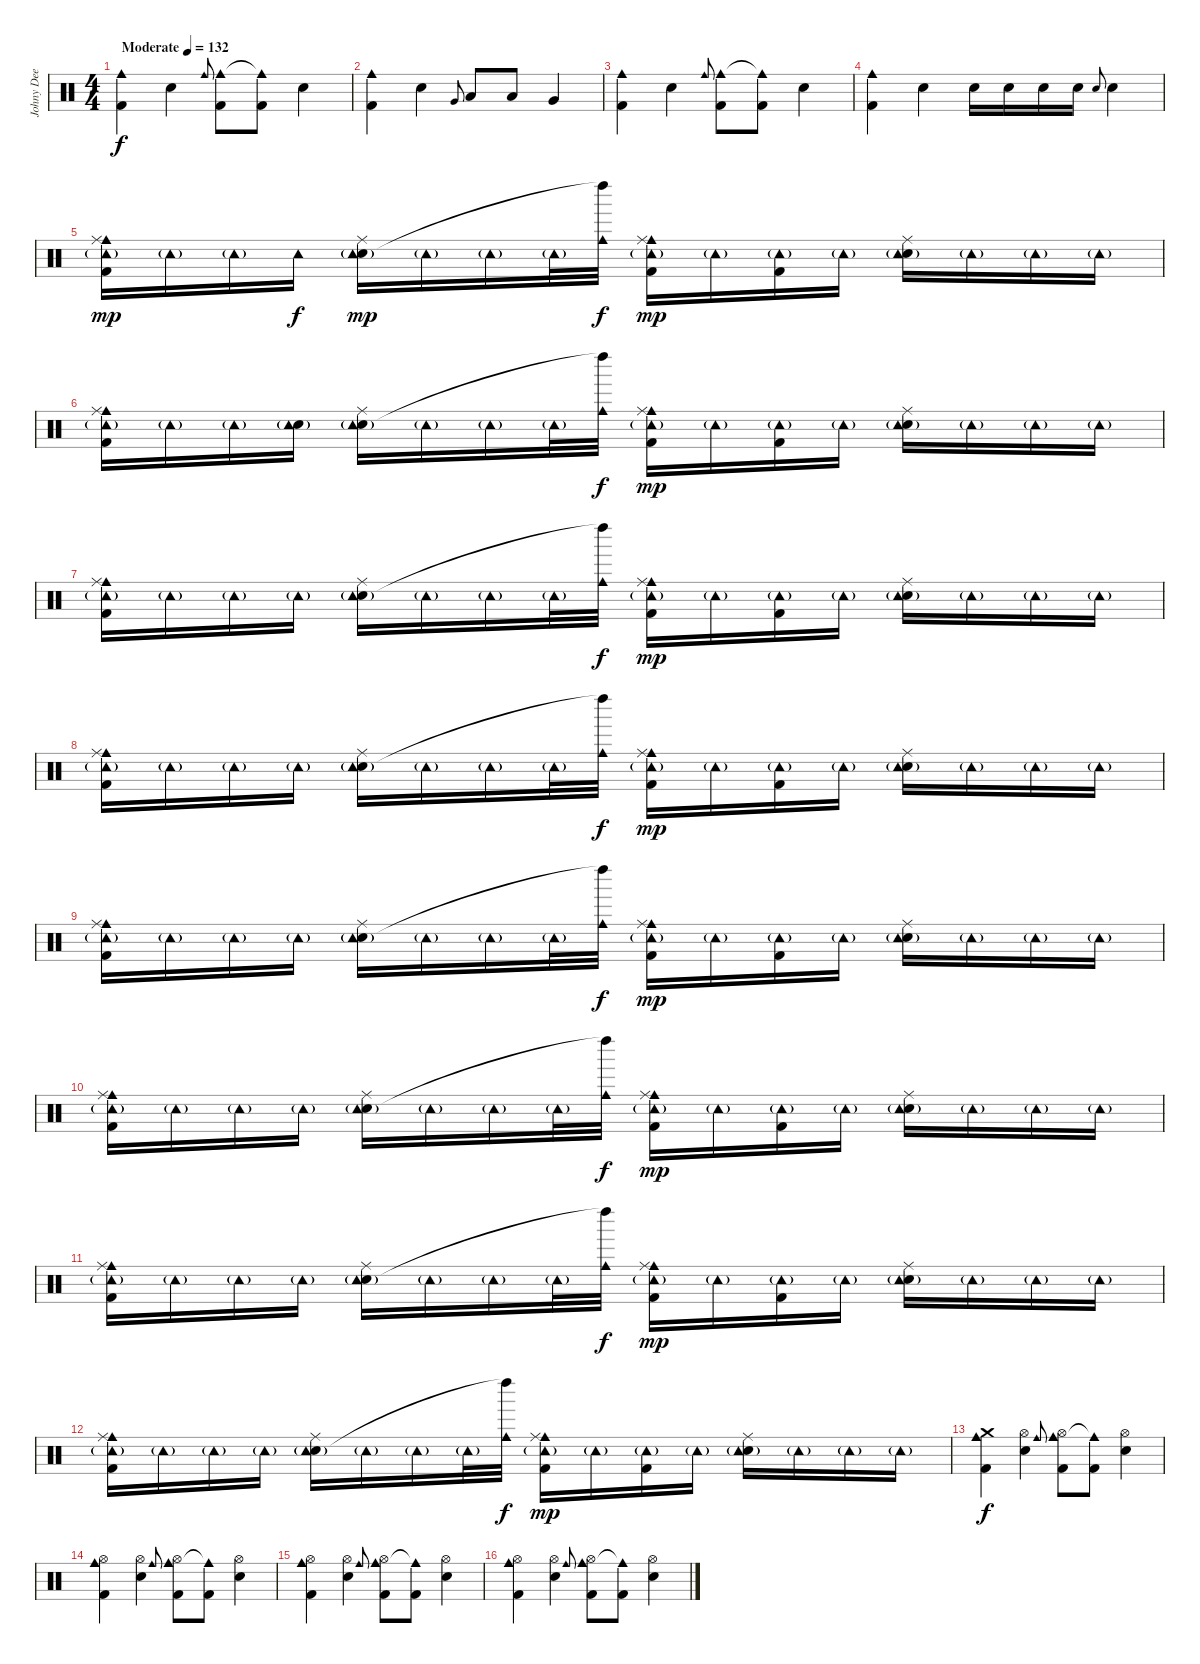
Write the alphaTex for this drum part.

\track ("Johny Dee" "Johny Dee") {instrument percussion}
\staff {score}
\articulation defaults
\ts (4 4)
\tempo (132 "Moderate")
\clef neutral
\ks c
("Cowbell medium (hit)" "Kick (hit) 2").4{dy f} "Snare (hit) 2".4 "Cowbell medium (hit)".8{gr onbeat} ("Cowbell medium (hit)" "Kick (hit) 2").8 ("Cowbell medium (hit)"{t} "Kick (hit) 2").8 "Snare (hit) 2".4 |
("Cowbell medium (hit)" "Kick (hit) 2").4 "Snare (hit) 2".4 "Very Low Tom (hit)".8{gr onbeat} "Low Tom (hit)".8 "Low Floor Tom (hit)".8 "Very Low Tom (hit)".4 |
("Cowbell medium (hit)" "Kick (hit) 2").4 "Snare (hit) 2".4 "Cowbell medium (hit)".8{gr onbeat} ("Cowbell medium (hit)" "Kick (hit) 2").8 ("Cowbell medium (hit)"{t} "Kick (hit) 2").8 "Snare (hit) 2".4 |
("Cowbell medium (hit)" "Kick (hit) 2").4 "Snare (hit) 2".4 "Snare (hit) 2".16 "Snare (hit) 2".16 "Snare (hit) 2".16 "Snare (hit) 2".16 "Snare (hit) 2".8{gr onbeat} "Snare (hit) 2".4 |
("Cowbell medium (hit)" "Ride (middle)" "Tambourine (hit)"{g} "Kick (hit) 2").16{dy mp} "Tambourine (hit)"{g}.16 "Tambourine (hit)"{g}.16 "Tambourine (hit)".16{dy f} ("Ride (middle)" "Snare (hit) 2" "Tambourine (hit)"{g}).16{dy mp} "Tambourine (hit)"{g}.16 "Tambourine (hit)"{g}.16 "Tambourine (hit)"{g}.32 ("Cowbell medium (hit)" "Left Maraca (hit)"{t}).32{dy f} ("Cowbell medium (hit)" "Ride (middle)" "Tambourine (hit)"{g} "Kick (hit) 2").16{dy mp} "Tambourine (hit)"{g}.16 ("Tambourine (hit)"{g} "Kick (hit) 2").16 "Tambourine (hit)"{g}.16 ("Ride (middle)" "Snare (hit) 2" "Tambourine (hit)"{g}).16 "Tambourine (hit)"{g}.16 "Tambourine (hit)"{g}.16 "Tambourine (hit)"{g}.16 |
("Cowbell medium (hit)" "Ride (middle)" "Tambourine (hit)"{g} "Kick (hit) 2").16 "Tambourine (hit)"{g}.16 "Tambourine (hit)"{g}.16 ("Snare (hit)" "Tambourine (hit)"{g}).16 ("Ride (middle)" "Snare (hit) 2" "Tambourine (hit)"{g}).16 "Tambourine (hit)"{g}.16 "Tambourine (hit)"{g}.16 "Tambourine (hit)"{g}.32 ("Cowbell medium (hit)" "Left Maraca (hit)"{t}).32{dy f} ("Cowbell medium (hit)" "Ride (middle)" "Tambourine (hit)"{g} "Kick (hit) 2").16{dy mp} "Tambourine (hit)"{g}.16 ("Tambourine (hit)"{g} "Kick (hit) 2").16 "Tambourine (hit)"{g}.16 ("Ride (middle)" "Snare (hit) 2" "Tambourine (hit)"{g}).16 "Tambourine (hit)"{g}.16 "Tambourine (hit)"{g}.16 "Tambourine (hit)"{g}.16 |
("Cowbell medium (hit)" "Ride (middle)" "Tambourine (hit)"{g} "Kick (hit) 2").16 "Tambourine (hit)"{g}.16 "Tambourine (hit)"{g}.16 "Tambourine (hit)"{g}.16 ("Ride (middle)" "Snare (hit) 2" "Tambourine (hit)"{g}).16 "Tambourine (hit)"{g}.16 "Tambourine (hit)"{g}.16 "Tambourine (hit)"{g}.32 ("Cowbell medium (hit)" "Left Maraca (hit)"{t}).32{dy f} ("Cowbell medium (hit)" "Ride (middle)" "Tambourine (hit)"{g} "Kick (hit) 2").16{dy mp} "Tambourine (hit)"{g}.16 ("Tambourine (hit)"{g} "Kick (hit) 2").16 "Tambourine (hit)"{g}.16 ("Ride (middle)" "Snare (hit) 2" "Tambourine (hit)"{g}).16 "Tambourine (hit)"{g}.16 "Tambourine (hit)"{g}.16 "Tambourine (hit)"{g}.16 |
("Cowbell medium (hit)" "Ride (middle)" "Tambourine (hit)"{g} "Kick (hit) 2").16 "Tambourine (hit)"{g}.16 "Tambourine (hit)"{g}.16 "Tambourine (hit)"{g}.16 ("Ride (middle)" "Snare (hit) 2" "Tambourine (hit)"{g}).16 "Tambourine (hit)"{g}.16 "Tambourine (hit)"{g}.16 "Tambourine (hit)"{g}.32 ("Cowbell medium (hit)" "Left Maraca (hit)"{t}).32{dy f} ("Cowbell medium (hit)" "Ride (middle)" "Tambourine (hit)"{g} "Kick (hit) 2").16{dy mp} "Tambourine (hit)"{g}.16 ("Tambourine (hit)"{g} "Kick (hit) 2").16 "Tambourine (hit)"{g}.16 ("Ride (middle)" "Snare (hit) 2" "Tambourine (hit)"{g}).16 "Tambourine (hit)"{g}.16 "Tambourine (hit)"{g}.16 "Tambourine (hit)"{g}.16 |
("Cowbell medium (hit)" "Ride (middle)" "Tambourine (hit)"{g} "Kick (hit) 2").16 "Tambourine (hit)"{g}.16 "Tambourine (hit)"{g}.16 "Tambourine (hit)"{g}.16 ("Ride (middle)" "Snare (hit) 2" "Tambourine (hit)"{g}).16 "Tambourine (hit)"{g}.16 "Tambourine (hit)"{g}.16 "Tambourine (hit)"{g}.32 ("Cowbell medium (hit)" "Left Maraca (hit)"{t}).32{dy f} ("Cowbell medium (hit)" "Ride (middle)" "Tambourine (hit)"{g} "Kick (hit) 2").16{dy mp} "Tambourine (hit)"{g}.16 ("Tambourine (hit)"{g} "Kick (hit) 2").16 "Tambourine (hit)"{g}.16 ("Ride (middle)" "Snare (hit) 2" "Tambourine (hit)"{g}).16 "Tambourine (hit)"{g}.16 "Tambourine (hit)"{g}.16 "Tambourine (hit)"{g}.16 |
("Cowbell medium (hit)" "Ride (middle)" "Tambourine (hit)"{g} "Kick (hit) 2").16 "Tambourine (hit)"{g}.16 "Tambourine (hit)"{g}.16 "Tambourine (hit)"{g}.16 ("Ride (middle)" "Snare (hit) 2" "Tambourine (hit)"{g}).16 "Tambourine (hit)"{g}.16 "Tambourine (hit)"{g}.16 "Tambourine (hit)"{g}.32 ("Cowbell medium (hit)" "Left Maraca (hit)"{t}).32{dy f} ("Cowbell medium (hit)" "Ride (middle)" "Tambourine (hit)"{g} "Kick (hit) 2").16{dy mp} "Tambourine (hit)"{g}.16 ("Tambourine (hit)"{g} "Kick (hit) 2").16 "Tambourine (hit)"{g}.16 ("Ride (middle)" "Snare (hit) 2" "Tambourine (hit)"{g}).16 "Tambourine (hit)"{g}.16 "Tambourine (hit)"{g}.16 "Tambourine (hit)"{g}.16 |
("Cowbell medium (hit)" "Ride (middle)" "Tambourine (hit)"{g} "Kick (hit) 2").16 "Tambourine (hit)"{g}.16 "Tambourine (hit)"{g}.16 "Tambourine (hit)"{g}.16 ("Ride (middle)" "Snare (hit) 2" "Tambourine (hit)"{g}).16 "Tambourine (hit)"{g}.16 "Tambourine (hit)"{g}.16 "Tambourine (hit)"{g}.32 ("Cowbell medium (hit)" "Left Maraca (hit)"{t}).32{dy f} ("Cowbell medium (hit)" "Ride (middle)" "Tambourine (hit)"{g} "Kick (hit) 2").16{dy mp} "Tambourine (hit)"{g}.16 ("Tambourine (hit)"{g} "Kick (hit) 2").16 "Tambourine (hit)"{g}.16 ("Ride (middle)" "Snare (hit) 2" "Tambourine (hit)"{g}).16 "Tambourine (hit)"{g}.16 "Tambourine (hit)"{g}.16 "Tambourine (hit)"{g}.16 |
("Cowbell medium (hit)" "Ride (middle)" "Tambourine (hit)"{g} "Kick (hit) 2").16 "Tambourine (hit)"{g}.16 "Tambourine (hit)"{g}.16 "Tambourine (hit)"{g}.16 ("Ride (middle)" "Snare (hit) 2" "Tambourine (hit)"{g}).16 "Tambourine (hit)"{g}.16 "Tambourine (hit)"{g}.16 "Tambourine (hit)"{g}.32 ("Cowbell medium (hit)" "Left Maraca (hit)"{t}).32{dy f} ("Cowbell medium (hit)" "Ride (middle)" "Tambourine (hit)"{g} "Kick (hit) 2").16{dy mp} "Tambourine (hit)"{g}.16 ("Tambourine (hit)"{g} "Kick (hit) 2").16 "Tambourine (hit)"{g}.16 ("Ride (middle)" "Snare (hit) 2" "Tambourine (hit)"{g}).16 "Tambourine (hit)"{g}.16 "Tambourine (hit)"{g}.16 "Tambourine (hit)"{g}.16 |
("Cowbell medium (hit)" "Kick (hit) 2" "Crash medium (hit)").4{dy f} ("Snare (hit) 2" "Hi-Hat (open)").4 "Cowbell medium (hit)".8{gr onbeat} ("Cowbell medium (hit)" "Kick (hit) 2" "Hi-Hat (open)").8 ("Cowbell medium (hit)"{t} "Kick (hit) 2").8 ("Snare (hit) 2" "Hi-Hat (open)").4 |
("Cowbell medium (hit)" "Kick (hit) 2" "Hi-Hat (open)").4 ("Snare (hit) 2" "Hi-Hat (open)").4 "Cowbell medium (hit)".8{gr onbeat} ("Cowbell medium (hit)" "Kick (hit) 2" "Hi-Hat (open)").8 ("Cowbell medium (hit)"{t} "Kick (hit) 2").8 ("Snare (hit) 2" "Hi-Hat (open)").4 |
("Cowbell medium (hit)" "Kick (hit) 2" "Hi-Hat (open)").4 ("Snare (hit) 2" "Hi-Hat (open)").4 "Cowbell medium (hit)".8{gr onbeat} ("Cowbell medium (hit)" "Kick (hit) 2" "Hi-Hat (open)").8 ("Cowbell medium (hit)"{t} "Kick (hit) 2").8 ("Snare (hit) 2" "Hi-Hat (open)").4 |
("Cowbell medium (hit)" "Kick (hit) 2" "Hi-Hat (open)").4 ("Snare (hit) 2" "Hi-Hat (open)").4 "Cowbell medium (hit)".8{gr onbeat} ("Cowbell medium (hit)" "Kick (hit) 2" "Hi-Hat (open)").8 ("Cowbell medium (hit)"{t} "Kick (hit) 2").8 ("Snare (hit) 2" "Hi-Hat (open)").4
